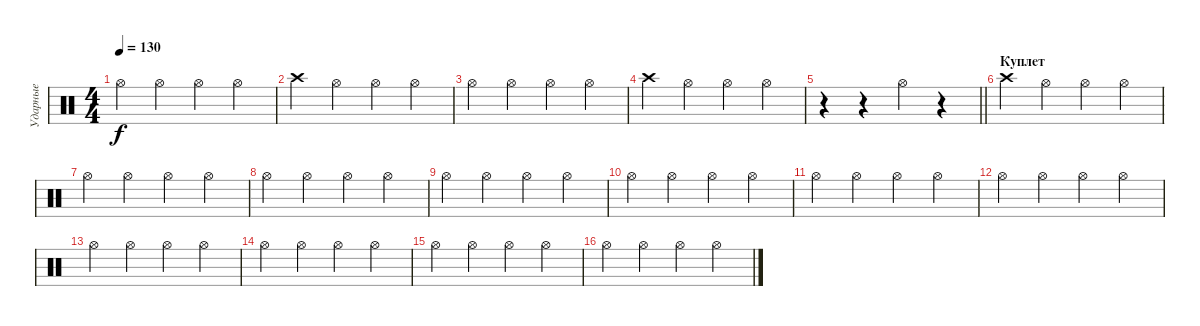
\track ("Ударные" "Ударные") {instrument percussion}
\staff {score}
\articulation defaults
\ts (4 4)
\tempo 130
\clef neutral
\ks c "Hi-Hat (open)".4{dy f} "Hi-Hat (open)".4 "Hi-Hat (open)".4 "Hi-Hat (open)".4
|
"Crash high (hit)".4 "Hi-Hat (open)".4 "Hi-Hat (open)".4 "Hi-Hat (open)".4 |
"Hi-Hat (open)".4 "Hi-Hat (open)".4 "Hi-Hat (open)".4 "Hi-Hat (open)".4 |
"Crash high (hit)".4 "Hi-Hat (open)".4 "Hi-Hat (open)".4 "Hi-Hat (open)".4 |
\barLineRight lightlight
r.4 r.4 "Hi-Hat (open)".4 r.4 |
\section ("" "Куплет")
"Crash high (hit)".4 "Hi-Hat (open)".4 "Hi-Hat (open)".4 "Hi-Hat (open)".4 |
"Hi-Hat (open)".4 "Hi-Hat (open)".4 "Hi-Hat (open)".4 "Hi-Hat (open)".4 |
"Hi-Hat (open)".4 "Hi-Hat (open)".4 "Hi-Hat (open)".4 "Hi-Hat (open)".4 |
"Hi-Hat (open)".4 "Hi-Hat (open)".4 "Hi-Hat (open)".4 "Hi-Hat (open)".4 |
"Hi-Hat (open)".4 "Hi-Hat (open)".4 "Hi-Hat (open)".4 "Hi-Hat (open)".4 |
"Hi-Hat (open)".4 "Hi-Hat (open)".4 "Hi-Hat (open)".4 "Hi-Hat (open)".4 |
"Hi-Hat (open)".4 "Hi-Hat (open)".4 "Hi-Hat (open)".4 "Hi-Hat (open)".4 |
"Hi-Hat (open)".4 "Hi-Hat (open)".4 "Hi-Hat (open)".4 "Hi-Hat (open)".4 |
"Hi-Hat (open)".4 "Hi-Hat (open)".4 "Hi-Hat (open)".4 "Hi-Hat (open)".4 |
"Hi-Hat (open)".4 "Hi-Hat (open)".4 "Hi-Hat (open)".4 "Hi-Hat (open)".4 |
"Hi-Hat (open)".4 "Hi-Hat (open)".4 "Hi-Hat (open)".4 "Hi-Hat (open)".4
